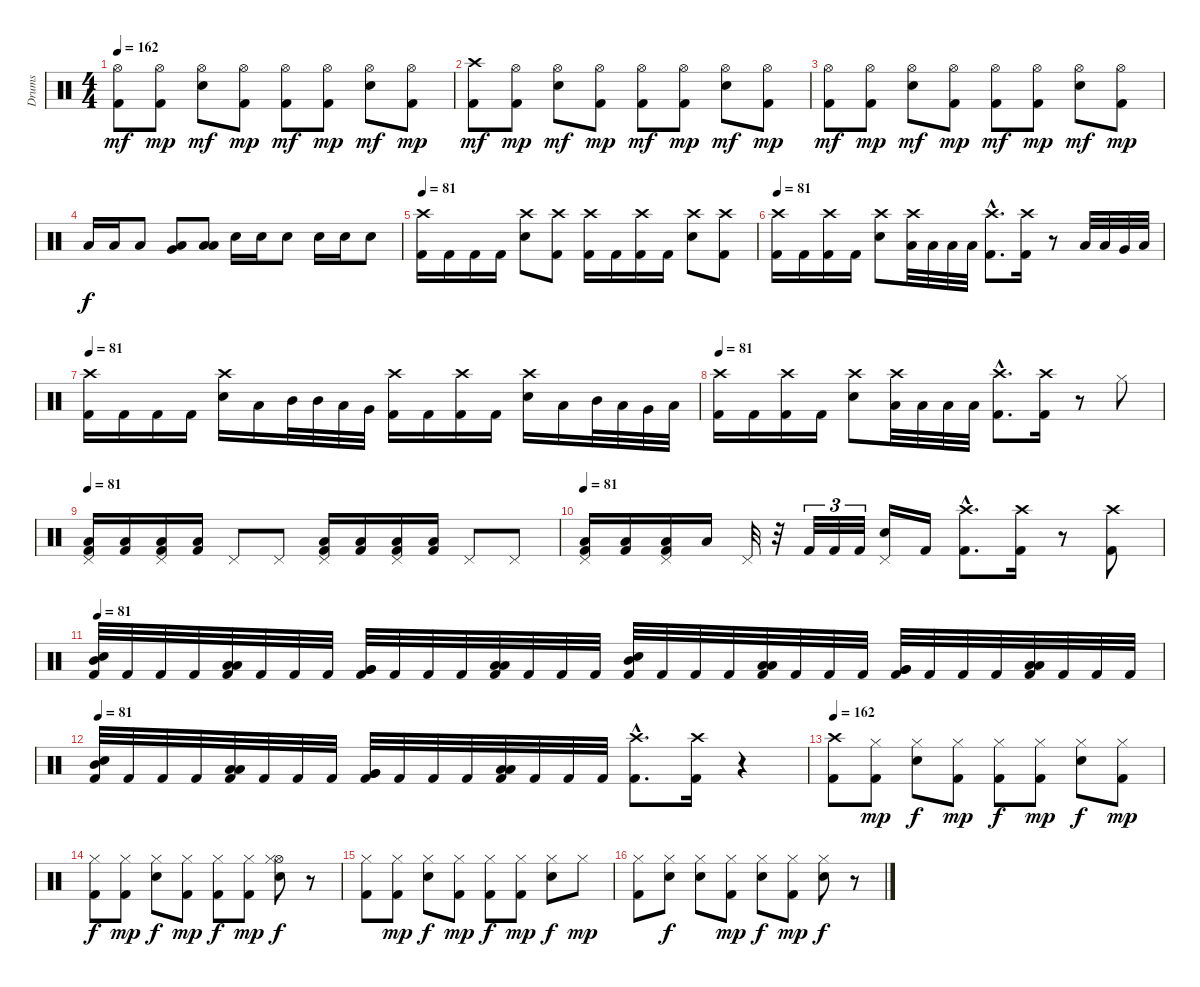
\track ("Drums" "Drums") {instrument percussion}
\staff {score}
\articulation defaults
\ts (4 4)
\tempo 162
\clef neutral
\ks c
("Hi-Hat (open)" "Kick (hit) 2").8{dy mf} ("Hi-Hat (open)" "Kick (hit) 2").8{dy mp} ("Hi-Hat (open)" "Electric Snare (hit)").8{dy mf} ("Hi-Hat (open)" "Kick (hit) 2").8{dy mp} ("Hi-Hat (open)" "Kick (hit) 2").8{dy mf} ("Hi-Hat (open)" "Kick (hit) 2").8{dy mp} ("Hi-Hat (open)" "Electric Snare (hit)").8{dy mf} ("Hi-Hat (open)" "Kick (hit) 2").8{dy mp} |
("Crash high (hit)" "Kick (hit) 2").8{dy mf} ("Hi-Hat (open)" "Kick (hit) 2").8{dy mp} ("Hi-Hat (open)" "Electric Snare (hit)").8{dy mf} ("Hi-Hat (open)" "Kick (hit) 2").8{dy mp} ("Hi-Hat (open)" "Kick (hit) 2").8{dy mf} ("Hi-Hat (open)" "Kick (hit) 2").8{dy mp} ("Hi-Hat (open)" "Electric Snare (hit)").8{dy mf} ("Hi-Hat (open)" "Kick (hit) 2").8{dy mp} |
("Hi-Hat (open)" "Kick (hit) 2").8{dy mf} ("Hi-Hat (open)" "Kick (hit) 2").8{dy mp} ("Hi-Hat (open)" "Electric Snare (hit)").8{dy mf} ("Hi-Hat (open)" "Kick (hit) 2").8{dy mp} ("Hi-Hat (open)" "Kick (hit) 2").8{dy mf} ("Hi-Hat (open)" "Kick (hit) 2").8{dy mp} ("Hi-Hat (open)" "Electric Snare (hit)").8{dy mf} ("Hi-Hat (open)" "Kick (hit) 2").8{dy mp} |
"Low Tom (hit)".16{dy f} "Low Tom (hit)".16 "Low Tom (hit)".8 ("Low Tom (hit)" "Very Low Tom (hit)").8 ("Low Tom (hit)" "Low Floor Tom (hit)").8 "Electric Snare (hit)".16 "Electric Snare (hit)".16 "Electric Snare (hit)".8 "Electric Snare (hit)".16 "Electric Snare (hit)".16 "Electric Snare (hit)".8 |
\tempo 81
("Crash high (hit)" "Kick (hit) 2").16 "Kick (hit) 2".16 "Kick (hit) 2".16 "Kick (hit) 2".16 ("Crash high (hit)" "Electric Snare (hit)").8 ("Crash high (hit)" "Kick (hit) 2").8 ("Crash high (hit)" "Kick (hit) 2").16 "Kick (hit) 2".16 ("Crash high (hit)" "Kick (hit) 2").16 "Kick (hit) 2".16 ("Crash high (hit)" "Electric Snare (hit)").8 ("Crash high (hit)" "Kick (hit) 2").8 |
\tempo 81
("Crash high (hit)" "Kick (hit) 2").16 "Kick (hit) 2".16 ("Crash high (hit)" "Kick (hit) 2").16 "Kick (hit) 2".16 ("Crash high (hit)" "Electric Snare (hit)").8 ("Crash high (hit)" "Low Floor Tom (hit)").32 "Low Floor Tom (hit)".32 "Low Floor Tom (hit)".32 "Low Floor Tom (hit)".32 ("Crash high (hit)"{hac} "Kick (hit) 2"{hac}).8{d} ("Crash high (hit)" "Kick (hit) 2").16 r.8 "Low Tom (hit)".32 "Low Tom (hit)".32 "Very Low Tom (hit)".32 "Low Floor Tom (hit)".32 |
\tempo 81
("Crash high (hit)" "Kick (hit) 2").16 "Kick (hit) 2".16 "Kick (hit) 2".16 "Kick (hit) 2".16 ("Crash high (hit)" "Electric Snare (hit)").16 "Low Tom (hit)".16 "Mid Tom (hit)".32 "Mid Tom (hit)".32 "Low Tom (hit)".32 "Very Low Tom (hit)".32 ("Crash high (hit)" "Kick (hit) 2").16 "Kick (hit) 2".16 ("Crash high (hit)" "Kick (hit) 2").16 "Kick (hit) 2".16 ("Crash high (hit)" "Electric Snare (hit)").16 "Low Tom (hit)".16 "Mid Tom (hit)".32 "Low Tom (hit)".32 "Very Low Tom (hit)".32 "Low Floor Tom (hit)".32 |
\tempo 81
("Crash high (hit)" "Kick (hit) 2").16 "Kick (hit) 2".16 ("Crash high (hit)" "Kick (hit) 2").16 "Kick (hit) 2".16 ("Crash high (hit)" "Electric Snare (hit)").8 ("Crash high (hit)" "Low Floor Tom (hit)").32 "Low Floor Tom (hit)".32 "Low Floor Tom (hit)".32 "Low Floor Tom (hit)".32 ("Crash high (hit)"{hac} "Kick (hit) 2"{hac}).8{d} ("Crash high (hit)" "Kick (hit) 2").16 r.8 "Hi-Hat (closed)".8 |
\tempo 81
("Pedal Hi-Hat (hit)" "Low Floor Tom (hit)" "Kick (hit) 2").16 ("Low Floor Tom (hit)" "Kick (hit) 2").16 ("Pedal Hi-Hat (hit)" "Low Floor Tom (hit)" "Kick (hit) 2").16 ("Low Floor Tom (hit)" "Kick (hit) 2").16 "Pedal Hi-Hat (hit)".8 "Pedal Hi-Hat (hit)".8 ("Pedal Hi-Hat (hit)" "Low Floor Tom (hit)" "Kick (hit) 2").16 ("Low Floor Tom (hit)" "Kick (hit) 2").16 ("Pedal Hi-Hat (hit)" "Low Floor Tom (hit)" "Kick (hit) 2").16 ("Low Floor Tom (hit)" "Kick (hit) 2").16 "Pedal Hi-Hat (hit)".8 "Pedal Hi-Hat (hit)".8 |
\tempo 81
("Pedal Hi-Hat (hit)" "Low Floor Tom (hit)" "Kick (hit) 2").16 ("Low Floor Tom (hit)" "Kick (hit) 2").16 ("Pedal Hi-Hat (hit)" "Low Floor Tom (hit)" "Kick (hit) 2").16 "Low Floor Tom (hit)".16 "Pedal Hi-Hat (hit)".32 r.32 "Kick (hit) 2".32{tu (3 2)} "Kick (hit) 2".32{tu (3 2)} "Kick (hit) 2".32{tu (3 2)} ("Pedal Hi-Hat (hit)" "Electric Snare (hit)").16 "Kick (hit) 2".16 ("Crash high (hit)"{hac} "Kick (hit) 2"{hac}).8{d} ("Crash high (hit)" "Kick (hit) 2").16 r.8 ("Crash high (hit)" "Kick (hit) 2").8 |
\tempo 81
("Mid Tom (hit)" "Electric Snare (hit)" "Kick (hit) 2").32 "Kick (hit) 2".32 "Kick (hit) 2".32 "Kick (hit) 2".32 ("Low Tom (hit)" "Low Tom (hit)" "Kick (hit) 2").32 "Kick (hit) 2".32 "Kick (hit) 2".32 "Kick (hit) 2".32 ("Very Low Tom (hit)" "Very Low Tom (hit)" "Kick (hit) 2").32 "Kick (hit) 2".32 "Kick (hit) 2".32 "Kick (hit) 2".32 ("Low Floor Tom (hit)" "Low Floor Tom (hit)" "Kick (hit) 2").32 "Kick (hit) 2".32 "Kick (hit) 2".32 "Kick (hit) 2".32 ("Mid Tom (hit)" "Electric Snare (hit)" "Kick (hit) 2").32 "Kick (hit) 2".32 "Kick (hit) 2".32 "Kick (hit) 2".32 ("Low Tom (hit)" "Low Tom (hit)" "Kick (hit) 2").32 "Kick (hit) 2".32 "Kick (hit) 2".32 "Kick (hit) 2".32 ("Very Low Tom (hit)" "Very Low Tom (hit)" "Kick (hit) 2").32 "Kick (hit) 2".32 "Kick (hit) 2".32 "Kick (hit) 2".32 ("Low Floor Tom (hit)" "Low Floor Tom (hit)" "Kick (hit) 2").32 "Kick (hit) 2".32 "Kick (hit) 2".32 "Kick (hit) 2".32 |
\tempo 81
("Mid Tom (hit)" "Electric Snare (hit)" "Kick (hit) 2").32 "Kick (hit) 2".32 "Kick (hit) 2".32 "Kick (hit) 2".32 ("Low Tom (hit)" "Low Tom (hit)" "Kick (hit) 2").32 "Kick (hit) 2".32 "Kick (hit) 2".32 "Kick (hit) 2".32 ("Very Low Tom (hit)" "Very Low Tom (hit)" "Kick (hit) 2").32 "Kick (hit) 2".32 "Kick (hit) 2".32 "Kick (hit) 2".32 ("Low Floor Tom (hit)" "Low Floor Tom (hit)" "Kick (hit) 2").32 "Kick (hit) 2".32 "Kick (hit) 2".32 "Kick (hit) 2".32 ("Crash high (hit)"{hac} "Kick (hit) 2"{hac}).8{d} ("Crash high (hit)" "Kick (hit) 2").16 r.4 |
\tempo 162
("Crash high (hit)" "Kick (hit) 2").8 ("Hi-Hat (closed)" "Kick (hit) 2").8{dy mp} ("Hi-Hat (closed)" "Electric Snare (hit)").8{dy f} ("Hi-Hat (closed)" "Kick (hit) 2").8{dy mp} ("Hi-Hat (closed)" "Kick (hit) 2").8{dy f} ("Hi-Hat (closed)" "Kick (hit) 2").8{dy mp} ("Hi-Hat (closed)" "Electric Snare (hit)").8{dy f} ("Hi-Hat (closed)" "Kick (hit) 2").8{dy mp} |
("Hi-Hat (closed)" "Kick (hit) 2").8{dy f} ("Hi-Hat (closed)" "Kick (hit) 2").8{dy mp} ("Hi-Hat (closed)" "Electric Snare (hit)").8{dy f} ("Hi-Hat (closed)" "Kick (hit) 2").8{dy mp} ("Hi-Hat (closed)" "Kick (hit) 2").8{dy f} ("Hi-Hat (closed)" "Kick (hit) 2").8{dy mp} ("Hi-Hat (open)" "Hi-Hat (closed)" "Electric Snare (hit)").8{dy f} r.8 |
("Hi-Hat (closed)" "Kick (hit) 2").8 ("Hi-Hat (closed)" "Kick (hit) 2").8{dy mp} ("Hi-Hat (closed)" "Electric Snare (hit)").8{dy f} ("Hi-Hat (closed)" "Kick (hit) 2").8{dy mp} ("Hi-Hat (closed)" "Kick (hit) 2").8{dy f} ("Hi-Hat (closed)" "Kick (hit) 2").8{dy mp} ("Hi-Hat (closed)" "Electric Snare (hit)").8{dy f} "Hi-Hat (closed)".8{dy mp} |
("Hi-Hat (closed)" "Kick (hit) 2").8 ("Hi-Hat (closed)" "Electric Snare (hit)").8{dy f} ("Hi-Hat (closed)" "Electric Snare (hit)").8 ("Hi-Hat (closed)" "Kick (hit) 2").8{dy mp} ("Hi-Hat (closed)" "Electric Snare (hit)").8{dy f} ("Hi-Hat (closed)" "Kick (hit) 2").8{dy mp} ("Hi-Hat (closed)" "Electric Snare (hit)").8{dy f} r.8
